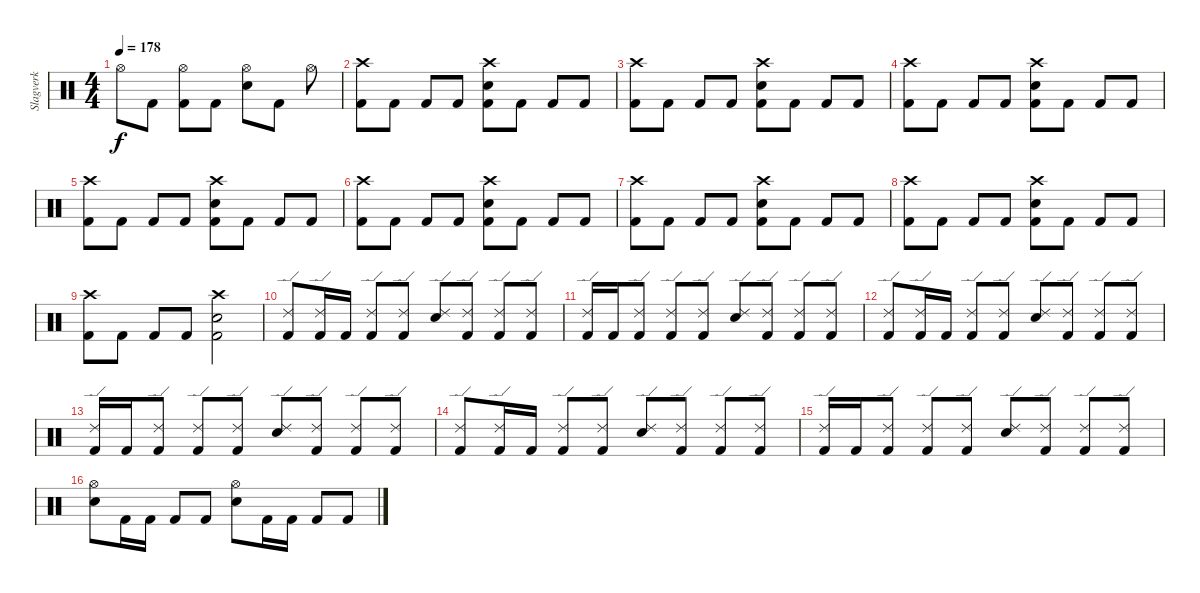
\track ("Slagverk" "Slagverk") {instrument percussion}
\staff {score}
\articulation defaults
\ts (4 4)
\tempo 178
\clef neutral
\ks c "Hi-Hat (open)".8{dy f} "Kick (hit) 2".8
("Hi-Hat (open)" "Kick (hit) 2").8 "Kick (hit) 2".8 ("Hi-Hat (open)" "Electric Snare (hit)").8 "Kick (hit) 2".8 "Hi-Hat (open)".8 |
("Crash high (hit)" "Kick (hit) 2").8 "Kick (hit) 2".8 "Kick (hit) 2".8 "Kick (hit) 2".8 ("Crash high (hit)" "Electric Snare (hit)" "Kick (hit) 2").8 "Kick (hit) 2".8 "Kick (hit) 2".8 "Kick (hit) 2".8 |
("Crash high (hit)" "Kick (hit) 2").8 "Kick (hit) 2".8 "Kick (hit) 2".8 "Kick (hit) 2".8 ("Crash high (hit)" "Electric Snare (hit)" "Kick (hit) 2").8 "Kick (hit) 2".8 "Kick (hit) 2".8 "Kick (hit) 2".8 |
("Crash high (hit)" "Kick (hit) 2").8 "Kick (hit) 2".8 "Kick (hit) 2".8 "Kick (hit) 2".8 ("Crash high (hit)" "Electric Snare (hit)" "Kick (hit) 2").8 "Kick (hit) 2".8 "Kick (hit) 2".8 "Kick (hit) 2".8 |
("Crash high (hit)" "Kick (hit) 2").8 "Kick (hit) 2".8 "Kick (hit) 2".8 "Kick (hit) 2".8 ("Crash high (hit)" "Electric Snare (hit)" "Kick (hit) 2").8 "Kick (hit) 2".8 "Kick (hit) 2".8 "Kick (hit) 2".8 |
("Crash high (hit)" "Kick (hit) 2").8 "Kick (hit) 2".8 "Kick (hit) 2".8 "Kick (hit) 2".8 ("Crash high (hit)" "Electric Snare (hit)" "Kick (hit) 2").8 "Kick (hit) 2".8 "Kick (hit) 2".8 "Kick (hit) 2".8 |
("Crash high (hit)" "Kick (hit) 2").8 "Kick (hit) 2".8 "Kick (hit) 2".8 "Kick (hit) 2".8 ("Crash high (hit)" "Electric Snare (hit)" "Kick (hit) 2").8 "Kick (hit) 2".8 "Kick (hit) 2".8 "Kick (hit) 2".8 |
("Crash high (hit)" "Kick (hit) 2").8 "Kick (hit) 2".8 "Kick (hit) 2".8 "Kick (hit) 2".8 ("Crash high (hit)" "Electric Snare (hit)" "Kick (hit) 2").8 "Kick (hit) 2".8 "Kick (hit) 2".8 "Kick (hit) 2".8 |
("Crash high (hit)" "Kick (hit) 2").8 "Kick (hit) 2".8 "Kick (hit) 2".8 "Kick (hit) 2".8 ("Crash high (hit)" "Electric Snare (hit)" "Kick (hit) 2").2 |
("Ride (edge) 2" "Kick (hit) 2").8 ("Ride (edge) 2" "Kick (hit) 2").16 "Kick (hit) 2".16 ("Ride (edge) 2" "Kick (hit) 2").8 ("Ride (edge) 2" "Kick (hit) 2").8 ("Ride (edge) 2" "Electric Snare (hit)").8 ("Ride (edge) 2" "Kick (hit) 2").8 ("Ride (edge) 2" "Kick (hit) 2").8 ("Ride (edge) 2" "Kick (hit) 2").8 |
("Ride (edge) 2" "Kick (hit) 2").16 "Kick (hit) 2".16 ("Ride (edge) 2" "Kick (hit) 2").8 ("Ride (edge) 2" "Kick (hit) 2").8 ("Ride (edge) 2" "Kick (hit) 2").8 ("Ride (edge) 2" "Electric Snare (hit)").8 ("Ride (edge) 2" "Kick (hit) 2").8 ("Ride (edge) 2" "Kick (hit) 2").8 ("Ride (edge) 2" "Kick (hit) 2").8 |
("Ride (edge) 2" "Kick (hit) 2").8 ("Ride (edge) 2" "Kick (hit) 2").16 "Kick (hit) 2".16 ("Ride (edge) 2" "Kick (hit) 2").8 ("Ride (edge) 2" "Kick (hit) 2").8 ("Ride (edge) 2" "Electric Snare (hit)").8 ("Ride (edge) 2" "Kick (hit) 2").8 ("Ride (edge) 2" "Kick (hit) 2").8 ("Ride (edge) 2" "Kick (hit) 2").8 |
("Ride (edge) 2" "Kick (hit) 2").16 "Kick (hit) 2".16 ("Ride (edge) 2" "Kick (hit) 2").8 ("Ride (edge) 2" "Kick (hit) 2").8 ("Ride (edge) 2" "Kick (hit) 2").8 ("Ride (edge) 2" "Electric Snare (hit)").8 ("Ride (edge) 2" "Kick (hit) 2").8 ("Ride (edge) 2" "Kick (hit) 2").8 ("Ride (edge) 2" "Kick (hit) 2").8 |
("Ride (edge) 2" "Kick (hit) 2").8 ("Ride (edge) 2" "Kick (hit) 2").16 "Kick (hit) 2".16 ("Ride (edge) 2" "Kick (hit) 2").8 ("Ride (edge) 2" "Kick (hit) 2").8 ("Ride (edge) 2" "Electric Snare (hit)").8 ("Ride (edge) 2" "Kick (hit) 2").8 ("Ride (edge) 2" "Kick (hit) 2").8 ("Ride (edge) 2" "Kick (hit) 2").8 |
("Ride (edge) 2" "Kick (hit) 2").16 "Kick (hit) 2".16 ("Ride (edge) 2" "Kick (hit) 2").8 ("Ride (edge) 2" "Kick (hit) 2").8 ("Ride (edge) 2" "Kick (hit) 2").8 ("Ride (edge) 2" "Electric Snare (hit)").8 ("Ride (edge) 2" "Kick (hit) 2").8 ("Ride (edge) 2" "Kick (hit) 2").8 ("Ride (edge) 2" "Kick (hit) 2").8 |
("Hi-Hat (open)" "Electric Snare (hit)").8 "Kick (hit) 2".16 "Kick (hit) 2".16 "Kick (hit) 2".8 "Kick (hit) 2".8 ("Hi-Hat (open)" "Electric Snare (hit)").8 "Kick (hit) 2".16 "Kick (hit) 2".16 "Kick (hit) 2".8 "Kick (hit) 2".8
